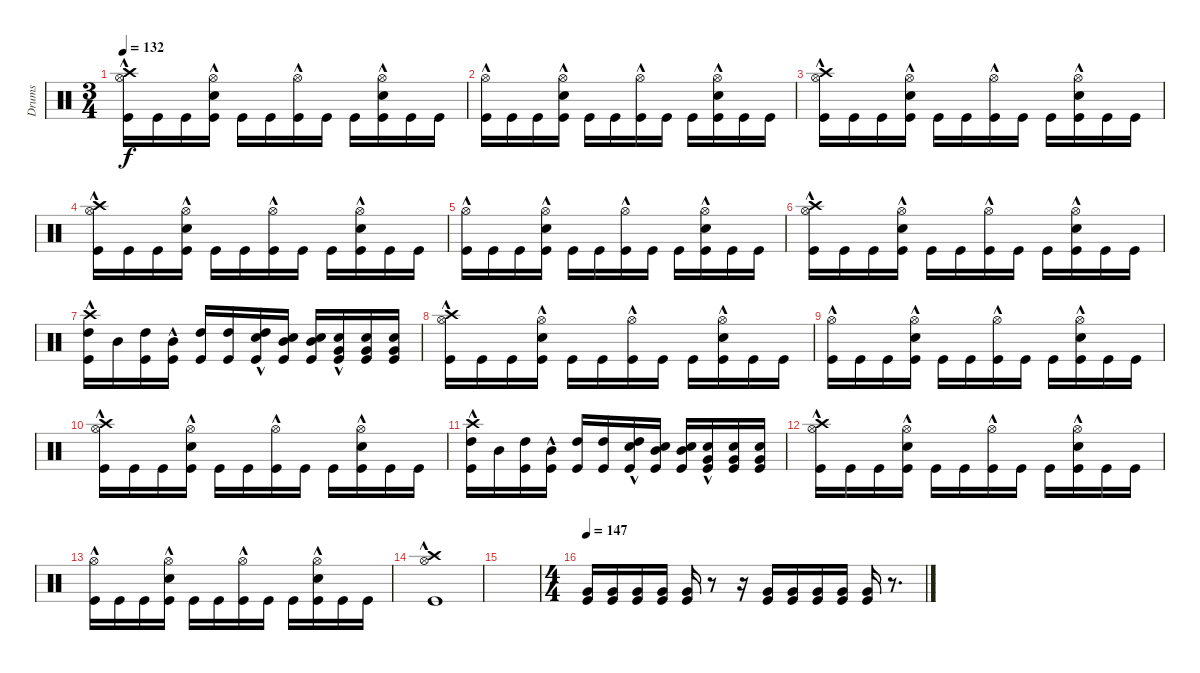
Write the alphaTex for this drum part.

\track ("Drums" "Drums") {instrument percussion}
\staff {score}
\articulation defaults
\ts (3 4)
\tempo 132
\clef neutral
\ks c
("Crash high (hit)" "Hi-Hat (open)"{hac} "Kick (hit)").16{dy f} "Kick (hit)".16 "Kick (hit)".16 ("Hi-Hat (open)"{hac} "Kick (hit)" "Electric Snare (hit)").16 "Kick (hit)".16 "Kick (hit)".16 ("Hi-Hat (open)"{hac} "Kick (hit)").16 "Kick (hit)".16 "Kick (hit)".16 ("Hi-Hat (open)"{hac} "Kick (hit)" "Electric Snare (hit)").16 "Kick (hit)".16 "Kick (hit)".16 |
("Hi-Hat (open)"{hac} "Kick (hit)").16 "Kick (hit)".16 "Kick (hit)".16 ("Hi-Hat (open)"{hac} "Kick (hit)" "Electric Snare (hit)").16 "Kick (hit)".16 "Kick (hit)".16 ("Hi-Hat (open)"{hac} "Kick (hit)").16 "Kick (hit)".16 "Kick (hit)".16 ("Hi-Hat (open)"{hac} "Kick (hit)" "Electric Snare (hit)").16 "Kick (hit)".16 "Kick (hit)".16 |
("Crash high (hit)" "Hi-Hat (open)"{hac} "Kick (hit)").16 "Kick (hit)".16 "Kick (hit)".16 ("Hi-Hat (open)"{hac} "Kick (hit)" "Electric Snare (hit)").16 "Kick (hit)".16 "Kick (hit)".16 ("Hi-Hat (open)"{hac} "Kick (hit)").16 "Kick (hit)".16 "Kick (hit)".16 ("Hi-Hat (open)"{hac} "Kick (hit)" "Electric Snare (hit)").16 "Kick (hit)".16 "Kick (hit)".16 |
("Crash high (hit)" "Hi-Hat (open)"{hac} "Kick (hit)").16 "Kick (hit)".16 "Kick (hit)".16 ("Hi-Hat (open)"{hac} "Kick (hit)" "Electric Snare (hit)").16 "Kick (hit)".16 "Kick (hit)".16 ("Hi-Hat (open)"{hac} "Kick (hit)").16 "Kick (hit)".16 "Kick (hit)".16 ("Hi-Hat (open)"{hac} "Kick (hit)" "Electric Snare (hit)").16 "Kick (hit)".16 "Kick (hit)".16 |
("Hi-Hat (open)"{hac} "Kick (hit)").16 "Kick (hit)".16 "Kick (hit)".16 ("Hi-Hat (open)"{hac} "Kick (hit)" "Electric Snare (hit)").16 "Kick (hit)".16 "Kick (hit)".16 ("Hi-Hat (open)"{hac} "Kick (hit)").16 "Kick (hit)".16 "Kick (hit)".16 ("Hi-Hat (open)"{hac} "Kick (hit)" "Electric Snare (hit)").16 "Kick (hit)".16 "Kick (hit)".16 |
("Crash high (hit)" "Hi-Hat (open)"{hac} "Kick (hit)").16 "Kick (hit)".16 "Kick (hit)".16 ("Hi-Hat (open)"{hac} "Kick (hit)" "Electric Snare (hit)").16 "Kick (hit)".16 "Kick (hit)".16 ("Hi-Hat (open)"{hac} "Kick (hit)").16 "Kick (hit)".16 "Kick (hit)".16 ("Hi-Hat (open)"{hac} "Kick (hit)" "Electric Snare (hit)").16 "Kick (hit)".16 "Kick (hit)".16 |
("High Tom (hit)"{hac} "Crash high (hit)" "Kick (hit)").16 "Mid Tom (hit)".16 ("High Tom (hit)" "Kick (hit)").16 ("Mid Tom (hit)"{hac} "Kick (hit)").16 ("High Tom (hit)" "Kick (hit)").16 ("High Tom (hit)" "Kick (hit)").16 ("High Tom (hit)"{hac} "Snare (hit) 2" "Kick (hit)").16 ("Mid Tom (hit)" "Snare (hit) 2" "Kick (hit)").16 ("Mid Tom (hit)" "Snare (hit) 2" "Kick (hit)").16 ("Very Low Tom (hit)"{hac} "Snare (hit) 2" "Kick (hit)").16 ("Very Low Tom (hit)" "Snare (hit) 2" "Kick (hit)").16 ("Very Low Tom (hit)" "Snare (hit) 2" "Kick (hit)").16 |
("Crash high (hit)" "Hi-Hat (open)"{hac} "Kick (hit)").16 "Kick (hit)".16 "Kick (hit)".16 ("Hi-Hat (open)"{hac} "Kick (hit)" "Electric Snare (hit)").16 "Kick (hit)".16 "Kick (hit)".16 ("Hi-Hat (open)"{hac} "Kick (hit)").16 "Kick (hit)".16 "Kick (hit)".16 ("Hi-Hat (open)"{hac} "Kick (hit)" "Electric Snare (hit)").16 "Kick (hit)".16 "Kick (hit)".16 |
("Hi-Hat (open)"{hac} "Kick (hit)").16 "Kick (hit)".16 "Kick (hit)".16 ("Hi-Hat (open)"{hac} "Kick (hit)" "Electric Snare (hit)").16 "Kick (hit)".16 "Kick (hit)".16 ("Hi-Hat (open)"{hac} "Kick (hit)").16 "Kick (hit)".16 "Kick (hit)".16 ("Hi-Hat (open)"{hac} "Kick (hit)" "Electric Snare (hit)").16 "Kick (hit)".16 "Kick (hit)".16 |
("Crash high (hit)" "Hi-Hat (open)"{hac} "Kick (hit)").16 "Kick (hit)".16 "Kick (hit)".16 ("Hi-Hat (open)"{hac} "Kick (hit)" "Electric Snare (hit)").16 "Kick (hit)".16 "Kick (hit)".16 ("Hi-Hat (open)"{hac} "Kick (hit)").16 "Kick (hit)".16 "Kick (hit)".16 ("Hi-Hat (open)"{hac} "Kick (hit)" "Electric Snare (hit)").16 "Kick (hit)".16 "Kick (hit)".16 |
("High Tom (hit)"{hac} "Crash high (hit)" "Kick (hit)").16 "Mid Tom (hit)".16 ("High Tom (hit)" "Kick (hit)").16 ("Mid Tom (hit)"{hac} "Kick (hit)").16 ("High Tom (hit)" "Kick (hit)").16 ("High Tom (hit)" "Kick (hit)").16 ("High Tom (hit)"{hac} "Snare (hit) 2" "Kick (hit)").16 ("Mid Tom (hit)" "Snare (hit) 2" "Kick (hit)").16 ("Mid Tom (hit)" "Snare (hit) 2" "Kick (hit)").16 ("Very Low Tom (hit)"{hac} "Snare (hit) 2" "Kick (hit)").16 ("Very Low Tom (hit)" "Snare (hit) 2" "Kick (hit)").16 ("Very Low Tom (hit)" "Snare (hit) 2" "Kick (hit)").16 |
("Crash high (hit)" "Hi-Hat (open)"{hac} "Kick (hit)").16 "Kick (hit)".16 "Kick (hit)".16 ("Hi-Hat (open)"{hac} "Kick (hit)" "Electric Snare (hit)").16 "Kick (hit)".16 "Kick (hit)".16 ("Hi-Hat (open)"{hac} "Kick (hit)").16 "Kick (hit)".16 "Kick (hit)".16 ("Hi-Hat (open)"{hac} "Kick (hit)" "Electric Snare (hit)").16 "Kick (hit)".16 "Kick (hit)".16 |
("Hi-Hat (open)"{hac} "Kick (hit)").16 "Kick (hit)".16 "Kick (hit)".16 ("Hi-Hat (open)"{hac} "Kick (hit)" "Electric Snare (hit)").16 "Kick (hit)".16 "Kick (hit)".16 ("Hi-Hat (open)"{hac} "Kick (hit)").16 "Kick (hit)".16 "Kick (hit)".16 ("Hi-Hat (open)"{hac} "Kick (hit)" "Electric Snare (hit)").16 "Kick (hit)".16 "Kick (hit)".16 |
("Crash high (hit)" "Hi-Hat (open)"{hac} "Kick (hit)").1 |
|
\ts (4 4)
\tempo 147
("Very Low Tom (hit)" "Kick (hit)").16 ("Very Low Tom (hit)" "Kick (hit)").16 ("Very Low Tom (hit)" "Kick (hit)").16 ("Very Low Tom (hit)" "Kick (hit)").16 ("Very Low Tom (hit)" "Kick (hit)").16 r.8 r.16 ("Very Low Tom (hit)" "Kick (hit)").16 ("Very Low Tom (hit)" "Kick (hit)").16 ("Very Low Tom (hit)" "Kick (hit)").16 ("Very Low Tom (hit)" "Kick (hit)").16 ("Very Low Tom (hit)" "Kick (hit)").16 r.8{d}
